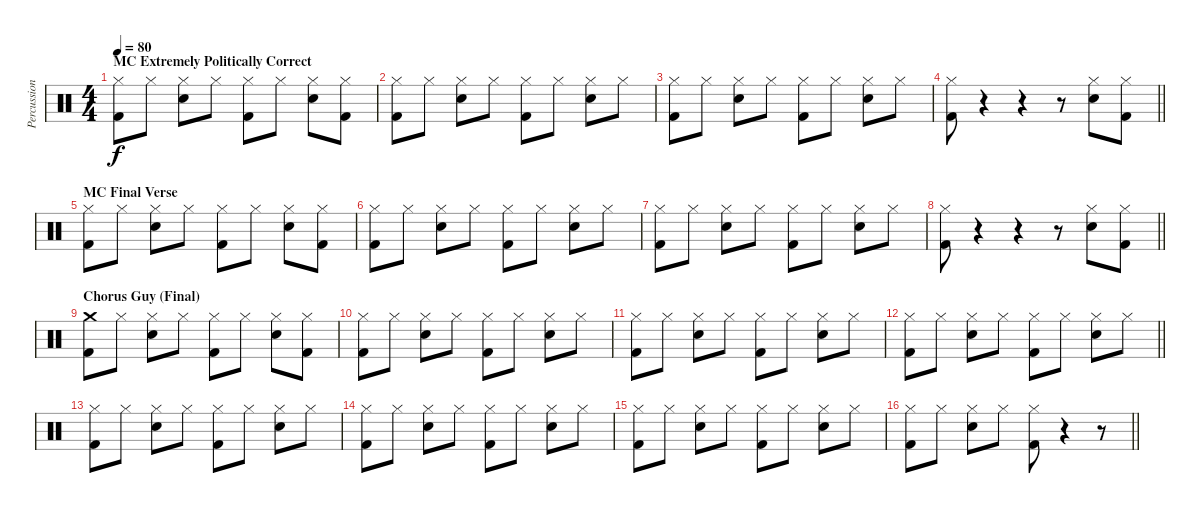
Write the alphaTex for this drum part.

\track ("Percussion" "Percussion") {instrument percussion}
\staff {score}
\articulation defaults
\ts (4 4)
\section ("" "MC Extremely Politically Correct")
\tempo 80
\clef neutral
\ks c
("Hi-Hat (closed)" "Kick (hit) 2").8{dy f} "Hi-Hat (closed)".8 ("Hi-Hat (closed)" "Snare (hit) 2").8 "Hi-Hat (closed)".8 ("Hi-Hat (closed)" "Kick (hit) 2").8 "Hi-Hat (closed)".8 ("Hi-Hat (closed)" "Snare (hit) 2").8 ("Hi-Hat (closed)" "Kick (hit) 2").8 |
("Hi-Hat (closed)" "Kick (hit) 2").8 "Hi-Hat (closed)".8 ("Hi-Hat (closed)" "Snare (hit) 2").8 "Hi-Hat (closed)".8 ("Hi-Hat (closed)" "Kick (hit) 2").8 "Hi-Hat (closed)".8 ("Hi-Hat (closed)" "Snare (hit) 2").8 "Hi-Hat (closed)".8 |
("Hi-Hat (closed)" "Kick (hit) 2").8 "Hi-Hat (closed)".8 ("Hi-Hat (closed)" "Snare (hit) 2").8 "Hi-Hat (closed)".8 ("Hi-Hat (closed)" "Kick (hit) 2").8 "Hi-Hat (closed)".8 ("Hi-Hat (closed)" "Snare (hit) 2").8 "Hi-Hat (closed)".8 |
\barLineRight lightlight
("Hi-Hat (closed)" "Kick (hit) 2").8 r.4 r.4 r.8 ("Hi-Hat (closed)" "Snare (hit) 2").8 ("Hi-Hat (closed)" "Kick (hit) 2").8 |
\section ("" "MC Final Verse")
("Hi-Hat (closed)" "Kick (hit) 2").8 "Hi-Hat (closed)".8 ("Hi-Hat (closed)" "Snare (hit) 2").8 "Hi-Hat (closed)".8 ("Hi-Hat (closed)" "Kick (hit) 2").8 "Hi-Hat (closed)".8 ("Hi-Hat (closed)" "Snare (hit) 2").8 ("Hi-Hat (closed)" "Kick (hit) 2").8 |
("Hi-Hat (closed)" "Kick (hit) 2").8 "Hi-Hat (closed)".8 ("Hi-Hat (closed)" "Snare (hit) 2").8 "Hi-Hat (closed)".8 ("Hi-Hat (closed)" "Kick (hit) 2").8 "Hi-Hat (closed)".8 ("Hi-Hat (closed)" "Snare (hit) 2").8 "Hi-Hat (closed)".8 |
("Hi-Hat (closed)" "Kick (hit) 2").8 "Hi-Hat (closed)".8 ("Hi-Hat (closed)" "Snare (hit) 2").8 "Hi-Hat (closed)".8 ("Hi-Hat (closed)" "Kick (hit) 2").8 "Hi-Hat (closed)".8 ("Hi-Hat (closed)" "Snare (hit) 2").8 "Hi-Hat (closed)".8 |
\barLineRight lightlight
("Hi-Hat (closed)" "Kick (hit) 2").8 r.4 r.4 r.8 ("Hi-Hat (closed)" "Snare (hit) 2").8 ("Hi-Hat (closed)" "Kick (hit) 2").8 |
\section ("" "Chorus Guy (Final)")
("Crash medium (hit)" "Kick (hit) 2").8 "Hi-Hat (closed)".8 ("Hi-Hat (closed)" "Snare (hit) 2").8 "Hi-Hat (closed)".8 ("Hi-Hat (closed)" "Kick (hit) 2").8 "Hi-Hat (closed)".8 ("Hi-Hat (closed)" "Snare (hit) 2").8 ("Hi-Hat (closed)" "Kick (hit) 2").8 |
("Hi-Hat (closed)" "Kick (hit) 2").8 "Hi-Hat (closed)".8 ("Hi-Hat (closed)" "Snare (hit) 2").8 "Hi-Hat (closed)".8 ("Hi-Hat (closed)" "Kick (hit) 2").8 "Hi-Hat (closed)".8 ("Hi-Hat (closed)" "Snare (hit) 2").8 "Hi-Hat (closed)".8 |
("Hi-Hat (closed)" "Kick (hit) 2").8 "Hi-Hat (closed)".8 ("Hi-Hat (closed)" "Snare (hit) 2").8 "Hi-Hat (closed)".8 ("Hi-Hat (closed)" "Kick (hit) 2").8 "Hi-Hat (closed)".8 ("Hi-Hat (closed)" "Snare (hit) 2").8 "Hi-Hat (closed)".8 |
\barLineRight lightlight
("Hi-Hat (closed)" "Kick (hit) 2").8 "Hi-Hat (closed)".8 ("Hi-Hat (closed)" "Snare (hit) 2").8 "Hi-Hat (closed)".8 ("Hi-Hat (closed)" "Kick (hit) 2").8 "Hi-Hat (closed)".8 ("Hi-Hat (closed)" "Snare (hit) 2").8 "Hi-Hat (closed)".8 |
("Hi-Hat (closed)" "Kick (hit) 2").8 "Hi-Hat (closed)".8 ("Hi-Hat (closed)" "Snare (hit) 2").8 "Hi-Hat (closed)".8 ("Hi-Hat (closed)" "Kick (hit) 2").8 "Hi-Hat (closed)".8 ("Hi-Hat (closed)" "Snare (hit) 2").8 "Hi-Hat (closed)".8 |
("Hi-Hat (closed)" "Kick (hit) 2").8 "Hi-Hat (closed)".8 ("Hi-Hat (closed)" "Snare (hit) 2").8 "Hi-Hat (closed)".8 ("Hi-Hat (closed)" "Kick (hit) 2").8 "Hi-Hat (closed)".8 ("Hi-Hat (closed)" "Snare (hit) 2").8 "Hi-Hat (closed)".8 |
("Hi-Hat (closed)" "Kick (hit) 2").8 "Hi-Hat (closed)".8 ("Hi-Hat (closed)" "Snare (hit) 2").8 "Hi-Hat (closed)".8 ("Hi-Hat (closed)" "Kick (hit) 2").8 "Hi-Hat (closed)".8 ("Hi-Hat (closed)" "Snare (hit) 2").8 "Hi-Hat (closed)".8 |
\barLineRight lightlight
("Hi-Hat (closed)" "Kick (hit) 2").8 "Hi-Hat (closed)".8 ("Hi-Hat (closed)" "Snare (hit) 2").8 "Hi-Hat (closed)".8 ("Hi-Hat (closed)" "Kick (hit) 2").8 r.4 r.8
